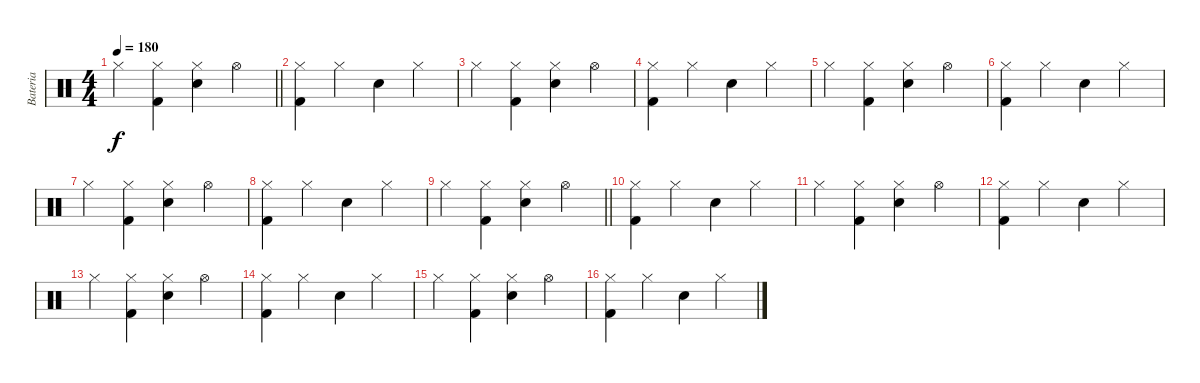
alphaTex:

\track ("Bateria" "Bateria") {instrument percussion}
\staff {score}
\articulation defaults
\ts (4 4)
\tempo 180
\clef neutral
\barLineRight lightlight
\ks c "Hi-Hat (closed)".4{dy f}
("Hi-Hat (closed)" "Kick (hit) 2").4 ("Hi-Hat (closed)" "Electric Snare (hit)").4 "Hi-Hat (open)".4 |
("Hi-Hat (closed)" "Kick (hit) 2").4 "Hi-Hat (closed)".4 "Electric Snare (hit)".4 "Hi-Hat (closed)".4 |
"Hi-Hat (closed)".4 ("Hi-Hat (closed)" "Kick (hit) 2").4 ("Hi-Hat (closed)" "Electric Snare (hit)").4 "Hi-Hat (open)".4 |
("Hi-Hat (closed)" "Kick (hit) 2").4 "Hi-Hat (closed)".4 "Electric Snare (hit)".4 "Hi-Hat (closed)".4 |
"Hi-Hat (closed)".4 ("Hi-Hat (closed)" "Kick (hit) 2").4 ("Hi-Hat (closed)" "Electric Snare (hit)").4 "Hi-Hat (open)".4 |
("Hi-Hat (closed)" "Kick (hit) 2").4 "Hi-Hat (closed)".4 "Electric Snare (hit)".4 "Hi-Hat (closed)".4 |
"Hi-Hat (closed)".4 ("Hi-Hat (closed)" "Kick (hit) 2").4 ("Hi-Hat (closed)" "Electric Snare (hit)").4 "Hi-Hat (open)".4 |
("Hi-Hat (closed)" "Kick (hit) 2").4 "Hi-Hat (closed)".4 "Electric Snare (hit)".4 "Hi-Hat (closed)".4 |
\barLineRight lightlight "Hi-Hat (closed)".4
("Hi-Hat (closed)" "Kick (hit) 2").4 ("Hi-Hat (closed)" "Electric Snare (hit)").4 "Hi-Hat (open)".4 |
\section ("" "")
("Hi-Hat (closed)" "Kick (hit) 2").4 "Hi-Hat (closed)".4 "Electric Snare (hit)".4 "Hi-Hat (closed)".4 |
"Hi-Hat (closed)".4 ("Hi-Hat (closed)" "Kick (hit) 2").4 ("Hi-Hat (closed)" "Electric Snare (hit)").4 "Hi-Hat (open)".4 |
("Hi-Hat (closed)" "Kick (hit) 2").4 "Hi-Hat (closed)".4 "Electric Snare (hit)".4 "Hi-Hat (closed)".4 |
"Hi-Hat (closed)".4 ("Hi-Hat (closed)" "Kick (hit) 2").4 ("Hi-Hat (closed)" "Electric Snare (hit)").4 "Hi-Hat (open)".4 |
("Hi-Hat (closed)" "Kick (hit) 2").4 "Hi-Hat (closed)".4 "Electric Snare (hit)".4 "Hi-Hat (closed)".4 |
"Hi-Hat (closed)".4 ("Hi-Hat (closed)" "Kick (hit) 2").4 ("Hi-Hat (closed)" "Electric Snare (hit)").4 "Hi-Hat (open)".4 |
("Hi-Hat (closed)" "Kick (hit) 2").4 "Hi-Hat (closed)".4 "Electric Snare (hit)".4 "Hi-Hat (closed)".4
